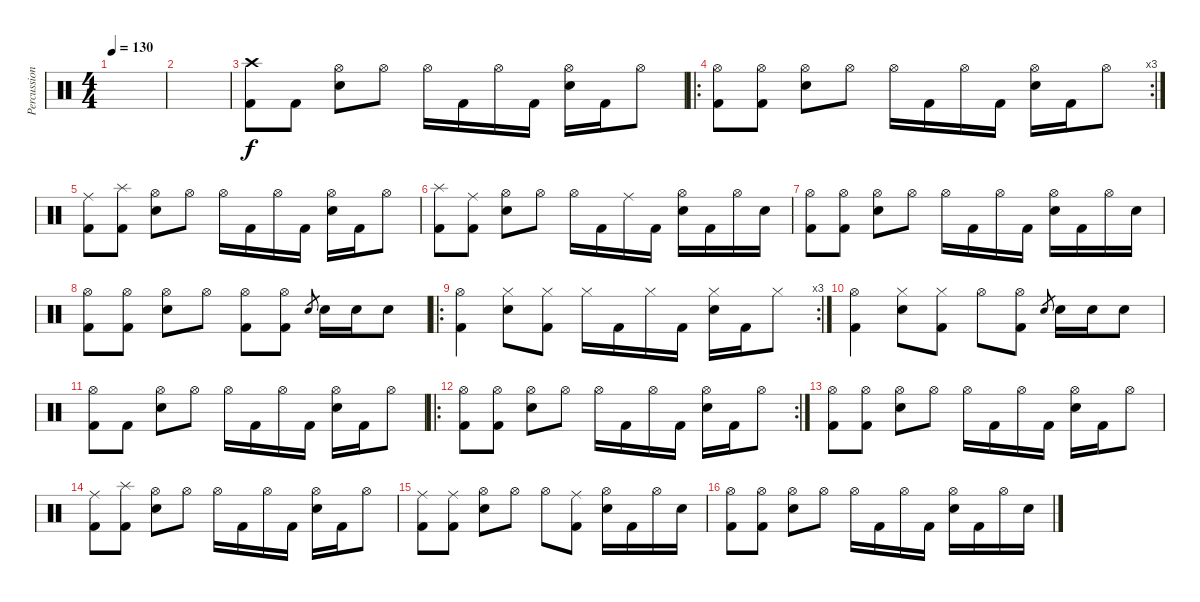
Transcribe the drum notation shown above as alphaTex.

\track ("Percussion" "Percussion") {instrument percussion}
\staff {score}
\articulation defaults
\ts (4 4)
\tempo 130
\clef neutral
\ks c
|
|
("Crash high (hit)" "Kick (hit) 2").8 "Kick (hit) 2".8 ("Hi-Hat (open)" "Electric Snare (hit)").8 "Hi-Hat (open)".8 "Hi-Hat (open)".16 "Kick (hit) 2".16 "Hi-Hat (open)".16 "Kick (hit) 2".16 ("Hi-Hat (open)" "Electric Snare (hit)").16 "Kick (hit) 2".16 "Hi-Hat (open)".8 |
\ro
\rc 3
("Hi-Hat (open)" "Kick (hit) 2").8 ("Hi-Hat (open)" "Kick (hit) 2").8 ("Hi-Hat (open)" "Electric Snare (hit)").8 "Hi-Hat (open)".8 "Hi-Hat (open)".16 "Kick (hit) 2".16 "Hi-Hat (open)".16 "Kick (hit) 2".16 ("Hi-Hat (open)" "Electric Snare (hit)").16 "Kick (hit) 2".16 "Hi-Hat (open)".8 |
("Ride (middle)" "Kick (hit) 2").8 ("Splash (hit)" "Kick (hit) 2").8 ("Hi-Hat (open)" "Electric Snare (hit)").8 "Hi-Hat (open)".8 "Hi-Hat (open)".16 "Kick (hit) 2".16 "Hi-Hat (open)".16 "Kick (hit) 2".16 ("Hi-Hat (open)" "Electric Snare (hit)").16 "Kick (hit) 2".16 "Hi-Hat (open)".8 |
("Splash (hit)" "Kick (hit) 2").8 ("Ride (middle)" "Kick (hit) 2").8 ("Hi-Hat (open)" "Electric Snare (hit)").8 "Hi-Hat (open)".8 "Hi-Hat (open)".16 "Kick (hit) 2".16 "Ride (middle)".16 "Kick (hit) 2".16 ("Hi-Hat (open)" "Electric Snare (hit)").16 "Kick (hit) 2".16 "Hi-Hat (open)".16 "Electric Snare (hit)".16 |
("Hi-Hat (open)" "Kick (hit) 2").8 ("Hi-Hat (open)" "Kick (hit) 2").8 ("Hi-Hat (open)" "Electric Snare (hit)").8 "Hi-Hat (open)".8 "Hi-Hat (open)".16 "Kick (hit) 2".16 "Hi-Hat (open)".16 "Kick (hit) 2".16 ("Hi-Hat (open)" "Electric Snare (hit)").16 "Kick (hit) 2".16 "Hi-Hat (open)".16 "Electric Snare (hit)".16 |
("Hi-Hat (open)" "Kick (hit) 2").8 ("Hi-Hat (open)" "Kick (hit) 2").8 ("Hi-Hat (open)" "Electric Snare (hit)").8 "Hi-Hat (open)".8 ("Hi-Hat (open)" "Kick (hit) 2").8 ("Hi-Hat (open)" "Kick (hit) 2").8 "Electric Snare (hit)".8{gr} "Electric Snare (hit)".16 "Electric Snare (hit)".16 "Electric Snare (hit)".8 |
\ro
\rc 3
("Hi-Hat (open)" "Kick (hit) 2").4 ("Hi-Hat (closed)" "Electric Snare (hit)").8 ("Hi-Hat (closed)" "Kick (hit) 2").8 "Hi-Hat (closed)".16 "Kick (hit) 2".16 "Hi-Hat (closed)".16 "Kick (hit) 2".16 ("Hi-Hat (closed)" "Electric Snare (hit)").16 "Kick (hit) 2".16 "Hi-Hat (closed)".8 |
("Hi-Hat (open)" "Kick (hit) 2").4 ("Hi-Hat (closed)" "Electric Snare (hit)").8 ("Hi-Hat (closed)" "Kick (hit) 2").8 "Hi-Hat (open)".8 ("Hi-Hat (open)" "Kick (hit) 2").8 "Electric Snare (hit)".8{gr} "Electric Snare (hit)".16 "Electric Snare (hit)".16 "Electric Snare (hit)".8 |
("Hi-Hat (open)" "Kick (hit) 2").8 "Kick (hit) 2".8 ("Hi-Hat (open)" "Electric Snare (hit)").8 "Hi-Hat (open)".8 "Hi-Hat (open)".16 "Kick (hit) 2".16 "Hi-Hat (open)".16 "Kick (hit) 2".16 ("Hi-Hat (open)" "Electric Snare (hit)").16 "Kick (hit) 2".16 "Hi-Hat (open)".8 |
\ro
\rc 2
("Hi-Hat (open)" "Kick (hit) 2").8 ("Hi-Hat (open)" "Kick (hit) 2").8 ("Hi-Hat (open)" "Electric Snare (hit)").8 "Hi-Hat (open)".8 "Hi-Hat (open)".16 "Kick (hit) 2".16 "Hi-Hat (open)".16 "Kick (hit) 2".16 ("Hi-Hat (open)" "Electric Snare (hit)").16 "Kick (hit) 2".16 "Hi-Hat (open)".8 |
("Hi-Hat (open)" "Kick (hit) 2").8 ("Hi-Hat (open)" "Kick (hit) 2").8 ("Hi-Hat (open)" "Electric Snare (hit)").8 "Hi-Hat (open)".8 "Hi-Hat (open)".16 "Kick (hit) 2".16 "Hi-Hat (open)".16 "Kick (hit) 2".16 ("Hi-Hat (open)" "Electric Snare (hit)").16 "Kick (hit) 2".16 "Hi-Hat (open)".8 |
("Ride (middle)" "Kick (hit) 2").8 ("Splash (hit)" "Kick (hit) 2").8 ("Hi-Hat (open)" "Electric Snare (hit)").8 "Hi-Hat (open)".8 "Hi-Hat (open)".16 "Kick (hit) 2".16 "Hi-Hat (open)".16 "Kick (hit) 2".16 ("Hi-Hat (open)" "Electric Snare (hit)").16 "Kick (hit) 2".16 "Hi-Hat (open)".8 |
("Ride (middle)" "Kick (hit) 2").8 ("Ride (middle)" "Kick (hit) 2").8 ("Hi-Hat (open)" "Electric Snare (hit)").8 "Hi-Hat (open)".8 "Hi-Hat (open)".8 ("Ride (middle)" "Kick (hit) 2").8 ("Hi-Hat (open)" "Electric Snare (hit)").16 "Kick (hit) 2".16 "Hi-Hat (open)".16 "Electric Snare (hit)".16 |
("Hi-Hat (open)" "Kick (hit) 2").8 ("Hi-Hat (open)" "Kick (hit) 2").8 ("Hi-Hat (open)" "Electric Snare (hit)").8 "Hi-Hat (open)".8 "Hi-Hat (open)".16 "Kick (hit) 2".16 "Hi-Hat (open)".16 "Kick (hit) 2".16 ("Hi-Hat (open)" "Electric Snare (hit)").16 "Kick (hit) 2".16 "Hi-Hat (open)".16 "Electric Snare (hit)".16
